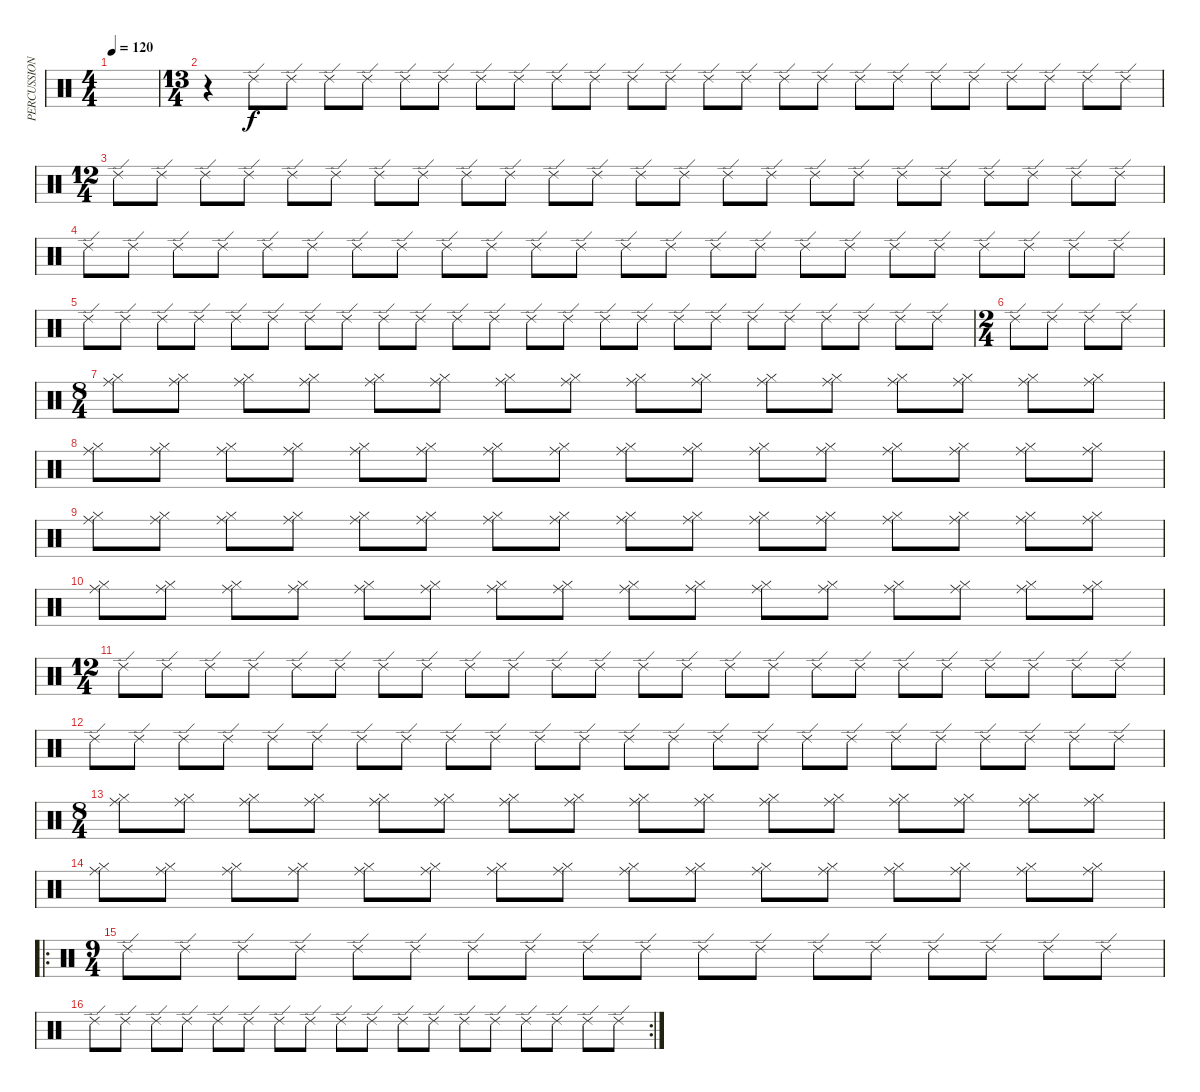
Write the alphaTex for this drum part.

\track ("PERCUSSION" "PERCUSSION") {instrument percussion}
\staff {score}
\articulation defaults
\ts (4 4)
\tempo 120
\clef neutral
\ks c
|
\ts (13 4)
r.4 "Ride (edge) 2".8 "Ride (edge) 2".8 "Ride (edge) 2".8 "Ride (edge) 2".8 "Ride (edge) 2".8 "Ride (edge) 2".8 "Ride (edge) 2".8 "Ride (edge) 2".8 "Ride (edge) 2".8 "Ride (edge) 2".8 "Ride (edge) 2".8 "Ride (edge) 2".8 "Ride (edge) 2".8 "Ride (edge) 2".8 "Ride (edge) 2".8 "Ride (edge) 2".8 "Ride (edge) 2".8 "Ride (edge) 2".8 "Ride (edge) 2".8 "Ride (edge) 2".8 "Ride (edge) 2".8 "Ride (edge) 2".8 "Ride (edge) 2".8 "Ride (edge) 2".8 |
\ts (12 4)
"Ride (edge) 2".8{volume 16} "Ride (edge) 2".8 "Ride (edge) 2".8 "Ride (edge) 2".8 "Ride (edge) 2".8 "Ride (edge) 2".8 "Ride (edge) 2".8 "Ride (edge) 2".8 "Ride (edge) 2".8 "Ride (edge) 2".8 "Ride (edge) 2".8 "Ride (edge) 2".8 "Ride (edge) 2".8 "Ride (edge) 2".8 "Ride (edge) 2".8 "Ride (edge) 2".8 "Ride (edge) 2".8 "Ride (edge) 2".8 "Ride (edge) 2".8 "Ride (edge) 2".8 "Ride (edge) 2".8 "Ride (edge) 2".8 "Ride (edge) 2".8 "Ride (edge) 2".8 |
"Ride (edge) 2".8{volume 16} "Ride (edge) 2".8 "Ride (edge) 2".8 "Ride (edge) 2".8 "Ride (edge) 2".8 "Ride (edge) 2".8 "Ride (edge) 2".8 "Ride (edge) 2".8 "Ride (edge) 2".8 "Ride (edge) 2".8 "Ride (edge) 2".8 "Ride (edge) 2".8 "Ride (edge) 2".8 "Ride (edge) 2".8 "Ride (edge) 2".8 "Ride (edge) 2".8 "Ride (edge) 2".8 "Ride (edge) 2".8 "Ride (edge) 2".8 "Ride (edge) 2".8 "Ride (edge) 2".8 "Ride (edge) 2".8 "Ride (edge) 2".8 "Ride (edge) 2".8 |
"Ride (edge) 2".8{volume 16} "Ride (edge) 2".8 "Ride (edge) 2".8 "Ride (edge) 2".8 "Ride (edge) 2".8 "Ride (edge) 2".8 "Ride (edge) 2".8 "Ride (edge) 2".8 "Ride (edge) 2".8 "Ride (edge) 2".8 "Ride (edge) 2".8 "Ride (edge) 2".8 "Ride (edge) 2".8 "Ride (edge) 2".8 "Ride (edge) 2".8 "Ride (edge) 2".8 "Ride (edge) 2".8 "Ride (edge) 2".8 "Ride (edge) 2".8 "Ride (edge) 2".8 "Ride (edge) 2".8 "Ride (edge) 2".8 "Ride (edge) 2".8 "Ride (edge) 2".8 |
\ts (2 4)
"Ride (edge) 2".8 "Ride (edge) 2".8 "Ride (edge) 2".8 "Ride (edge) 2".8 |
\ts (8 4)
("Hi-Hat (closed)" "Ride (middle)").8 ("Hi-Hat (closed)" "Ride (middle)").8 ("Hi-Hat (closed)" "Ride (middle)").8 ("Hi-Hat (closed)" "Ride (middle)").8 ("Hi-Hat (closed)" "Ride (middle)").8 ("Hi-Hat (closed)" "Ride (middle)").8 ("Hi-Hat (closed)" "Ride (middle)").8 ("Hi-Hat (closed)" "Ride (middle)").8 ("Hi-Hat (closed)" "Ride (middle)").8 ("Hi-Hat (closed)" "Ride (middle)").8 ("Hi-Hat (closed)" "Ride (middle)").8 ("Hi-Hat (closed)" "Ride (middle)").8 ("Hi-Hat (closed)" "Ride (middle)").8 ("Hi-Hat (closed)" "Ride (middle)").8 ("Hi-Hat (closed)" "Ride (middle)").8 ("Hi-Hat (closed)" "Ride (middle)").8 |
("Hi-Hat (closed)" "Ride (middle)").8 ("Hi-Hat (closed)" "Ride (middle)").8 ("Hi-Hat (closed)" "Ride (middle)").8 ("Hi-Hat (closed)" "Ride (middle)").8 ("Hi-Hat (closed)" "Ride (middle)").8 ("Hi-Hat (closed)" "Ride (middle)").8 ("Hi-Hat (closed)" "Ride (middle)").8 ("Hi-Hat (closed)" "Ride (middle)").8 ("Hi-Hat (closed)" "Ride (middle)").8 ("Hi-Hat (closed)" "Ride (middle)").8 ("Hi-Hat (closed)" "Ride (middle)").8 ("Hi-Hat (closed)" "Ride (middle)").8 ("Hi-Hat (closed)" "Ride (middle)").8 ("Hi-Hat (closed)" "Ride (middle)").8 ("Hi-Hat (closed)" "Ride (middle)").8 ("Hi-Hat (closed)" "Ride (middle)").8 |
("Hi-Hat (closed)" "Ride (middle)").8 ("Hi-Hat (closed)" "Ride (middle)").8 ("Hi-Hat (closed)" "Ride (middle)").8 ("Hi-Hat (closed)" "Ride (middle)").8 ("Hi-Hat (closed)" "Ride (middle)").8 ("Hi-Hat (closed)" "Ride (middle)").8 ("Hi-Hat (closed)" "Ride (middle)").8 ("Hi-Hat (closed)" "Ride (middle)").8 ("Hi-Hat (closed)" "Ride (middle)").8 ("Hi-Hat (closed)" "Ride (middle)").8 ("Hi-Hat (closed)" "Ride (middle)").8 ("Hi-Hat (closed)" "Ride (middle)").8 ("Hi-Hat (closed)" "Ride (middle)").8 ("Hi-Hat (closed)" "Ride (middle)").8 ("Hi-Hat (closed)" "Ride (middle)").8 ("Hi-Hat (closed)" "Ride (middle)").8 |
("Hi-Hat (closed)" "Ride (middle)").8 ("Hi-Hat (closed)" "Ride (middle)").8 ("Hi-Hat (closed)" "Ride (middle)").8 ("Hi-Hat (closed)" "Ride (middle)").8 ("Hi-Hat (closed)" "Ride (middle)").8 ("Hi-Hat (closed)" "Ride (middle)").8 ("Hi-Hat (closed)" "Ride (middle)").8 ("Hi-Hat (closed)" "Ride (middle)").8 ("Hi-Hat (closed)" "Ride (middle)").8 ("Hi-Hat (closed)" "Ride (middle)").8 ("Hi-Hat (closed)" "Ride (middle)").8 ("Hi-Hat (closed)" "Ride (middle)").8 ("Hi-Hat (closed)" "Ride (middle)").8 ("Hi-Hat (closed)" "Ride (middle)").8 ("Hi-Hat (closed)" "Ride (middle)").8 ("Hi-Hat (closed)" "Ride (middle)").8 |
\ts (12 4)
"Ride (edge) 2".8{volume 16} "Ride (edge) 2".8 "Ride (edge) 2".8 "Ride (edge) 2".8 "Ride (edge) 2".8 "Ride (edge) 2".8 "Ride (edge) 2".8 "Ride (edge) 2".8 "Ride (edge) 2".8 "Ride (edge) 2".8 "Ride (edge) 2".8 "Ride (edge) 2".8 "Ride (edge) 2".8 "Ride (edge) 2".8 "Ride (edge) 2".8 "Ride (edge) 2".8 "Ride (edge) 2".8 "Ride (edge) 2".8 "Ride (edge) 2".8 "Ride (edge) 2".8 "Ride (edge) 2".8 "Ride (edge) 2".8 "Ride (edge) 2".8 "Ride (edge) 2".8 |
"Ride (edge) 2".8{volume 16} "Ride (edge) 2".8 "Ride (edge) 2".8 "Ride (edge) 2".8 "Ride (edge) 2".8 "Ride (edge) 2".8 "Ride (edge) 2".8 "Ride (edge) 2".8 "Ride (edge) 2".8 "Ride (edge) 2".8 "Ride (edge) 2".8 "Ride (edge) 2".8 "Ride (edge) 2".8 "Ride (edge) 2".8 "Ride (edge) 2".8 "Ride (edge) 2".8 "Ride (edge) 2".8 "Ride (edge) 2".8 "Ride (edge) 2".8 "Ride (edge) 2".8 "Ride (edge) 2".8 "Ride (edge) 2".8 "Ride (edge) 2".8 "Ride (edge) 2".8 |
\ts (8 4)
("Hi-Hat (closed)" "Ride (middle)").8 ("Hi-Hat (closed)" "Ride (middle)").8 ("Hi-Hat (closed)" "Ride (middle)").8 ("Hi-Hat (closed)" "Ride (middle)").8 ("Hi-Hat (closed)" "Ride (middle)").8 ("Hi-Hat (closed)" "Ride (middle)").8 ("Hi-Hat (closed)" "Ride (middle)").8 ("Hi-Hat (closed)" "Ride (middle)").8 ("Hi-Hat (closed)" "Ride (middle)").8 ("Hi-Hat (closed)" "Ride (middle)").8 ("Hi-Hat (closed)" "Ride (middle)").8 ("Hi-Hat (closed)" "Ride (middle)").8 ("Hi-Hat (closed)" "Ride (middle)").8 ("Hi-Hat (closed)" "Ride (middle)").8 ("Hi-Hat (closed)" "Ride (middle)").8 ("Hi-Hat (closed)" "Ride (middle)").8 |
("Hi-Hat (closed)" "Ride (middle)").8 ("Hi-Hat (closed)" "Ride (middle)").8 ("Hi-Hat (closed)" "Ride (middle)").8 ("Hi-Hat (closed)" "Ride (middle)").8 ("Hi-Hat (closed)" "Ride (middle)").8 ("Hi-Hat (closed)" "Ride (middle)").8 ("Hi-Hat (closed)" "Ride (middle)").8 ("Hi-Hat (closed)" "Ride (middle)").8 ("Hi-Hat (closed)" "Ride (middle)").8 ("Hi-Hat (closed)" "Ride (middle)").8 ("Hi-Hat (closed)" "Ride (middle)").8 ("Hi-Hat (closed)" "Ride (middle)").8 ("Hi-Hat (closed)" "Ride (middle)").8 ("Hi-Hat (closed)" "Ride (middle)").8 ("Hi-Hat (closed)" "Ride (middle)").8 ("Hi-Hat (closed)" "Ride (middle)").8 |
\ro
\ts (9 4)
"Ride (edge) 2".8 "Ride (edge) 2".8 "Ride (edge) 2".8 "Ride (edge) 2".8 "Ride (edge) 2".8 "Ride (edge) 2".8 "Ride (edge) 2".8 "Ride (edge) 2".8 "Ride (edge) 2".8 "Ride (edge) 2".8 "Ride (edge) 2".8 "Ride (edge) 2".8 "Ride (edge) 2".8 "Ride (edge) 2".8 "Ride (edge) 2".8 "Ride (edge) 2".8 "Ride (edge) 2".8 "Ride (edge) 2".8 |
\rc 2 "Ride (edge) 2".8 "Ride (edge) 2".8 "Ride (edge) 2".8 "Ride (edge) 2".8 "Ride (edge) 2".8 "Ride (edge) 2".8 "Ride (edge) 2".8 "Ride (edge) 2".8 "Ride (edge) 2".8 "Ride (edge) 2".8 "Ride (edge) 2".8 "Ride (edge) 2".8 "Ride (edge) 2".8 "Ride (edge) 2".8 "Ride (edge) 2".8 "Ride (edge) 2".8 "Ride (edge) 2".8 "Ride (edge) 2".8
